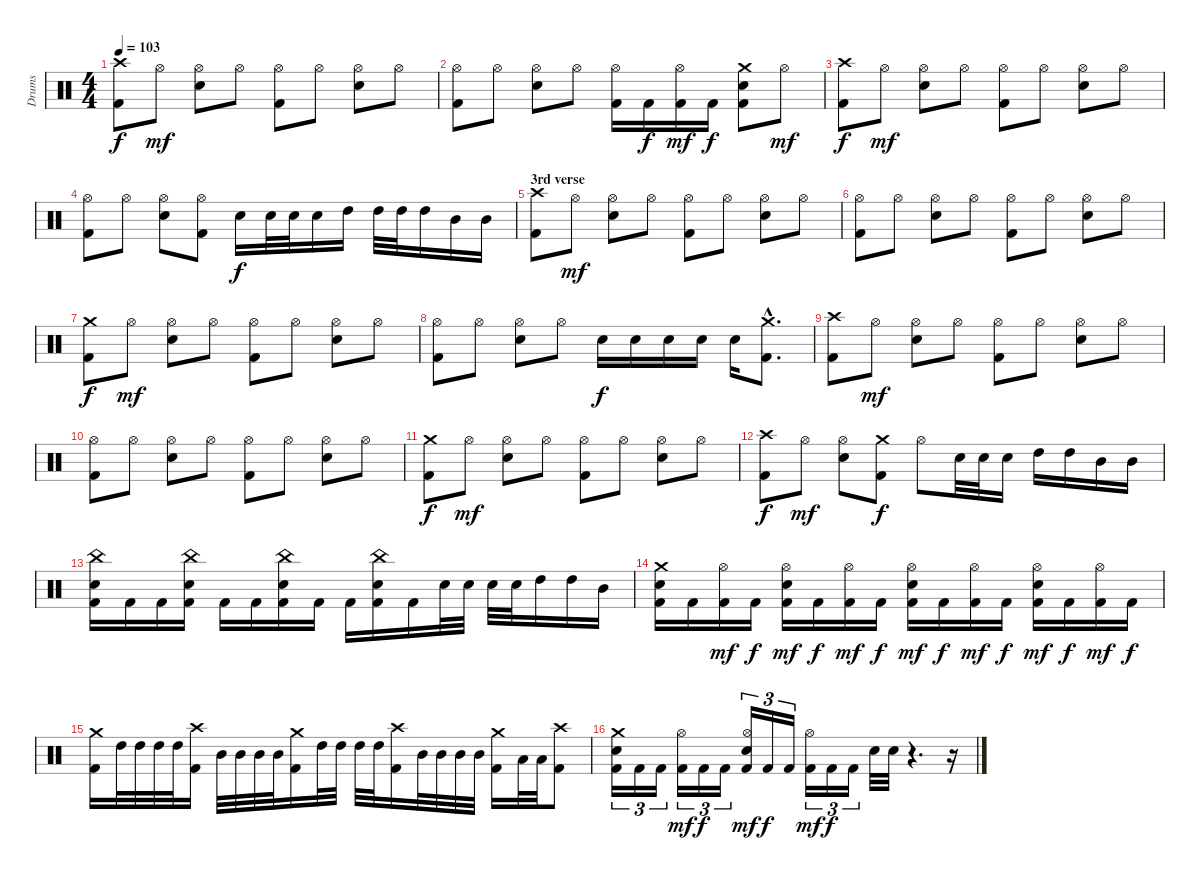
\track ("Drums" "Drums") {instrument percussion}
\staff {score}
\articulation defaults
\ts (4 4)
\tempo 103
\clef neutral
\ks c
("Crash high (hit)" "Kick (hit) 2").8{dy f} "Hi-Hat (open)".8{dy mf} ("Hi-Hat (open)" "Electric Snare (hit)").8 "Hi-Hat (open)".8 ("Hi-Hat (open)" "Kick (hit) 2").8 "Hi-Hat (open)".8 ("Hi-Hat (open)" "Electric Snare (hit)").8 "Hi-Hat (open)".8 |
("Hi-Hat (open)" "Kick (hit) 2").8 "Hi-Hat (open)".8 ("Hi-Hat (open)" "Electric Snare (hit)").8 "Hi-Hat (open)".8 ("Hi-Hat (open)" "Kick (hit) 2").16 "Kick (hit) 2".16{dy f} ("Hi-Hat (open)" "Kick (hit) 2").16{dy mf} "Kick (hit) 2".16{dy f} ("Crash medium (hit)" "Electric Snare (hit)" "Kick (hit) 2").8 "Hi-Hat (open)".8{dy mf} |
("Crash high (hit)" "Kick (hit) 2").8{dy f} "Hi-Hat (open)".8{dy mf} ("Hi-Hat (open)" "Electric Snare (hit)").8 "Hi-Hat (open)".8 ("Hi-Hat (open)" "Kick (hit) 2").8 "Hi-Hat (open)".8 ("Hi-Hat (open)" "Electric Snare (hit)").8 "Hi-Hat (open)".8 |
("Hi-Hat (open)" "Kick (hit) 2").8 "Hi-Hat (open)".8 ("Hi-Hat (open)" "Electric Snare (hit)").8 ("Hi-Hat (open)" "Kick (hit) 2").8 "Electric Snare (hit)".16{dy f} "Electric Snare (hit)".32 "Electric Snare (hit)".32 "Electric Snare (hit)".16 "High Tom (hit)".16 "High Tom (hit)".32 "High Tom (hit)".32 "High Tom (hit)".16 "Mid Tom (hit)".16 "Mid Tom (hit)".16 |
\section ("" "3rd verse")
("Crash high (hit)" "Kick (hit) 2").8 "Hi-Hat (open)".8{dy mf} ("Hi-Hat (open)" "Electric Snare (hit)").8 "Hi-Hat (open)".8 ("Hi-Hat (open)" "Kick (hit) 2").8 "Hi-Hat (open)".8 ("Hi-Hat (open)" "Electric Snare (hit)").8 "Hi-Hat (open)".8 |
("Hi-Hat (open)" "Kick (hit) 2").8 "Hi-Hat (open)".8 ("Hi-Hat (open)" "Electric Snare (hit)").8 "Hi-Hat (open)".8 ("Hi-Hat (open)" "Kick (hit) 2").8 "Hi-Hat (open)".8 ("Hi-Hat (open)" "Electric Snare (hit)").8 "Hi-Hat (open)".8 |
("Crash medium (hit)" "Kick (hit) 2").8{dy f} "Hi-Hat (open)".8{dy mf} ("Hi-Hat (open)" "Electric Snare (hit)").8 "Hi-Hat (open)".8 ("Hi-Hat (open)" "Kick (hit) 2").8 "Hi-Hat (open)".8 ("Hi-Hat (open)" "Electric Snare (hit)").8 "Hi-Hat (open)".8 |
("Hi-Hat (open)" "Kick (hit) 2").8 "Hi-Hat (open)".8 ("Hi-Hat (open)" "Electric Snare (hit)").8 "Hi-Hat (open)".8 "Electric Snare (hit)".16{dy f} "Electric Snare (hit)".16 "Electric Snare (hit)".16 "Electric Snare (hit)".16 "Electric Snare (hit)".16 ("Crash medium (hit)"{hac} "Kick (hit) 2"{hac}).8{d} |
("Crash high (hit)" "Kick (hit) 2").8 "Hi-Hat (open)".8{dy mf} ("Hi-Hat (open)" "Electric Snare (hit)").8 "Hi-Hat (open)".8 ("Hi-Hat (open)" "Kick (hit) 2").8 "Hi-Hat (open)".8 ("Hi-Hat (open)" "Electric Snare (hit)").8 "Hi-Hat (open)".8 |
("Hi-Hat (open)" "Kick (hit) 2").8 "Hi-Hat (open)".8 ("Hi-Hat (open)" "Electric Snare (hit)").8 "Hi-Hat (open)".8 ("Hi-Hat (open)" "Kick (hit) 2").8 "Hi-Hat (open)".8 ("Hi-Hat (open)" "Electric Snare (hit)").8 "Hi-Hat (open)".8 |
("Crash medium (hit)" "Kick (hit) 2").8{dy f} "Hi-Hat (open)".8{dy mf} ("Hi-Hat (open)" "Electric Snare (hit)").8 "Hi-Hat (open)".8 ("Hi-Hat (open)" "Kick (hit) 2").8 "Hi-Hat (open)".8 ("Hi-Hat (open)" "Electric Snare (hit)").8 "Hi-Hat (open)".8 |
("Crash high (hit)" "Kick (hit) 2").8{dy f} "Hi-Hat (open)".8{dy mf} ("Hi-Hat (open)" "Electric Snare (hit)").8 ("Crash medium (hit)" "Kick (hit) 2").8{dy f} "Hi-Hat (open)".8 "Electric Snare (hit)".32 "Electric Snare (hit)".32 "Electric Snare (hit)".16 "High Tom (hit)".16 "High Tom (hit)".16 "Mid Tom (hit)".16 "Mid Tom (hit)".16 |
("China (hit)" "Electric Snare (hit)" "Kick (hit) 2").16 "Kick (hit) 2".16 "Kick (hit) 2".16 ("China (hit)" "Electric Snare (hit)" "Kick (hit) 2").16 "Kick (hit) 2".16 "Kick (hit) 2".16 ("China (hit)" "Electric Snare (hit)" "Kick (hit) 2").16 "Kick (hit) 2".16 "Kick (hit) 2".16 ("China (hit)" "Electric Snare (hit)" "Kick (hit) 2").16 "Kick (hit) 2".16 "Electric Snare (hit)".32 "Electric Snare (hit)".32 "Electric Snare (hit)".32 "Electric Snare (hit)".32 "High Tom (hit)".16 "High Tom (hit)".16 "Mid Tom (hit)".16 |
("Crash medium (hit)" "Electric Snare (hit)" "Kick (hit) 2").16 "Kick (hit) 2".16 ("Hi-Hat (open)" "Kick (hit) 2").16{dy mf} "Kick (hit) 2".16{dy f} ("Hi-Hat (open)" "Electric Snare (hit)" "Kick (hit) 2").16{dy mf} "Kick (hit) 2".16{dy f} ("Hi-Hat (open)" "Kick (hit) 2").16{dy mf} "Kick (hit) 2".16{dy f} ("Hi-Hat (open)" "Electric Snare (hit)" "Kick (hit) 2").16{dy mf} "Kick (hit) 2".16{dy f} ("Hi-Hat (open)" "Kick (hit) 2").16{dy mf} "Kick (hit) 2".16{dy f} ("Hi-Hat (open)" "Electric Snare (hit)" "Kick (hit) 2").16{dy mf} "Kick (hit) 2".16{dy f} ("Hi-Hat (open)" "Kick (hit) 2").16{dy mf} "Kick (hit) 2".16{dy f} |
("Crash medium (hit)" "Kick (hit) 2").16 "High Tom (hit)".32 "High Tom (hit)".32 "High Tom (hit)".32 "High Tom (hit)".32 ("Crash high (hit)" "Kick (hit) 2").16 "Mid Tom (hit)".32 "Mid Tom (hit)".32 "Mid Tom (hit)".32 "Mid Tom (hit)".32 ("Crash medium (hit)" "Kick (hit) 2").16 "High Tom (hit)".32 "High Tom (hit)".32 "High Tom (hit)".32 "High Tom (hit)".32 ("Crash high (hit)" "Kick (hit) 2").16 "Mid Tom (hit)".32 "Mid Tom (hit)".32 "Mid Tom (hit)".32 "Mid Tom (hit)".32 ("Crash medium (hit)" "Kick (hit) 2").16 "Low Tom (hit)".32 "Low Tom (hit)".32 ("Crash high (hit)" "Kick (hit) 2").8 |
("Crash medium (hit)" "Electric Snare (hit)" "Kick (hit) 2").16{tu (3 2)} "Kick (hit) 2".16{tu (3 2)} "Kick (hit) 2".16{tu (3 2)} ("Hi-Hat (open)" "Kick (hit) 2").16{tu (3 2) dy mf} "Kick (hit) 2".16{tu (3 2) dy f} "Kick (hit) 2".16{tu (3 2)} ("Hi-Hat (open)" "Electric Snare (hit)" "Kick (hit) 2").16{tu (3 2) dy mf} "Kick (hit) 2".16{tu (3 2) dy f} "Kick (hit) 2".16{tu (3 2)} ("Hi-Hat (open)" "Kick (hit) 2").16{tu (3 2) dy mf} "Kick (hit) 2".16{tu (3 2) dy f} "Kick (hit) 2".16{tu (3 2)} "Electric Snare (hit)".32 "Electric Snare (hit)".32 r.4{d} r.16
